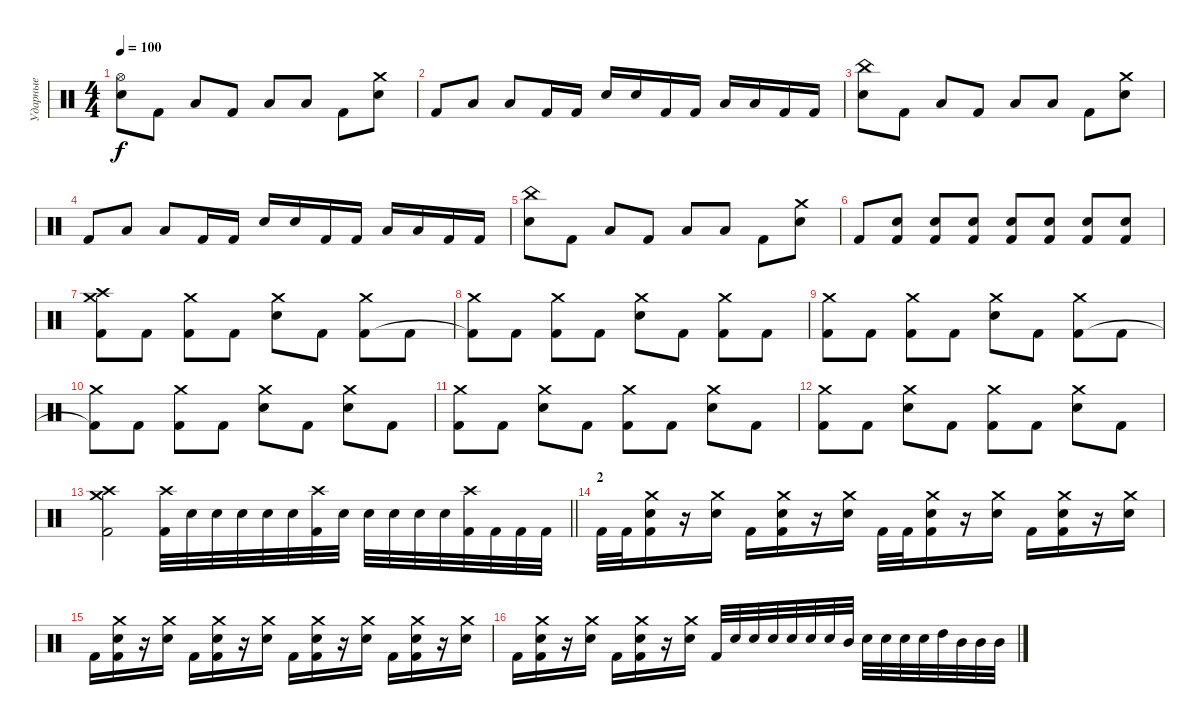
\track ("Ударные" "Ударные") {instrument percussion}
\staff
\articulation defaults
\ts (4 4)
\tempo 100
\clef neutral
\ks c
("Hi-Hat (open)" "Electric Snare (hit)").8{dy f} "Kick (hit) 2".8 "Low Tom (hit)".8 "Kick (hit) 2".8 "Low Tom (hit)".8 "Low Tom (hit)".8 "Kick (hit) 2".8 ("Crash medium (hit)" "Electric Snare (hit)").8 |
"Kick (hit) 2".8 "Low Tom (hit)".8 "Low Tom (hit)".8 "Kick (hit) 2".16 "Kick (hit) 2".16 "Electric Snare (hit)".16 "Electric Snare (hit)".16 "Kick (hit) 2".16 "Kick (hit) 2".16 "Low Tom (hit)".16 "Low Tom (hit)".16 "Kick (hit) 2".16 "Kick (hit) 2".16 |
("China (hit)" "Electric Snare (hit)").8 "Kick (hit) 2".8 "Low Tom (hit)".8 "Kick (hit) 2".8 "Low Tom (hit)".8 "Low Tom (hit)".8 "Kick (hit) 2".8 ("Crash medium (hit)" "Electric Snare (hit)").8 |
"Kick (hit) 2".8 "Low Tom (hit)".8 "Low Tom (hit)".8 "Kick (hit) 2".16 "Kick (hit) 2".16 "Electric Snare (hit)".16 "Electric Snare (hit)".16 "Kick (hit) 2".16 "Kick (hit) 2".16 "Low Tom (hit)".16 "Low Tom (hit)".16 "Kick (hit) 2".16 "Kick (hit) 2".16 |
("China (hit)" "Electric Snare (hit)").8 "Kick (hit) 2".8 "Low Tom (hit)".8 "Kick (hit) 2".8 "Low Tom (hit)".8 "Low Tom (hit)".8 "Kick (hit) 2".8 ("Crash medium (hit)" "Electric Snare (hit)").8 |
"Kick (hit) 2".8 ("Electric Snare (hit)" "Kick (hit) 2").8 ("Electric Snare (hit)" "Kick (hit) 2").8 ("Electric Snare (hit)" "Kick (hit) 2").8 ("Electric Snare (hit)" "Kick (hit) 2").8 ("Electric Snare (hit)" "Kick (hit) 2").8 ("Electric Snare (hit)" "Kick (hit) 2").8 ("Electric Snare (hit)" "Kick (hit) 2").8 |
("Crash medium (hit)" "Crash high (hit)" "Kick (hit) 2").8 "Kick (hit) 2".8 ("Crash medium (hit)" "Kick (hit) 2").8 "Kick (hit) 2".8 ("Crash medium (hit)" "Electric Snare (hit)").8 "Kick (hit) 2".8 ("Crash medium (hit)" "Kick (hit) 2").8 "Kick (hit) 2".8 |
("Crash medium (hit)" "Kick (hit) 2"{t}).8 "Kick (hit) 2".8 ("Crash medium (hit)" "Kick (hit) 2").8 "Kick (hit) 2".8 ("Crash medium (hit)" "Electric Snare (hit)").8 "Kick (hit) 2".8 ("Crash medium (hit)" "Kick (hit) 2").8 "Kick (hit) 2".8 |
("Crash medium (hit)" "Kick (hit) 2").8 "Kick (hit) 2".8 ("Crash medium (hit)" "Kick (hit) 2").8 "Kick (hit) 2".8 ("Crash medium (hit)" "Electric Snare (hit)").8 "Kick (hit) 2".8 ("Crash medium (hit)" "Kick (hit) 2").8 "Kick (hit) 2".8 |
("Crash medium (hit)" "Kick (hit) 2"{t}).8 "Kick (hit) 2".8 ("Crash medium (hit)" "Kick (hit) 2").8 "Kick (hit) 2".8 ("Crash medium (hit)" "Electric Snare (hit)").8 "Kick (hit) 2".8 ("Crash medium (hit)" "Electric Snare (hit)").8 "Kick (hit) 2".8 |
("Crash medium (hit)" "Kick (hit) 2").8 "Kick (hit) 2".8 ("Crash medium (hit)" "Electric Snare (hit)").8 "Kick (hit) 2".8 ("Crash medium (hit)" "Kick (hit) 2").8 "Kick (hit) 2".8 ("Crash medium (hit)" "Electric Snare (hit)").8 "Kick (hit) 2".8 |
("Crash medium (hit)" "Kick (hit) 2").8 "Kick (hit) 2".8 ("Crash medium (hit)" "Electric Snare (hit)").8 "Kick (hit) 2".8 ("Crash medium (hit)" "Kick (hit) 2").8 "Kick (hit) 2".8 ("Crash medium (hit)" "Electric Snare (hit)").8 "Kick (hit) 2".8 |
\barLineRight lightlight
("Crash medium (hit)" "Crash high (hit)" "Kick (hit) 2").2 ("Crash high (hit)" "Kick (hit) 2").32 "Electric Snare (hit)".32 "Electric Snare (hit)".32 "Electric Snare (hit)".32 "Electric Snare (hit)".32 "Electric Snare (hit)".32 ("Crash high (hit)" "Kick (hit) 2").32 "Electric Snare (hit)".32 "Electric Snare (hit)".32 "Electric Snare (hit)".32 "Electric Snare (hit)".32 "Electric Snare (hit)".32 ("Crash high (hit)" "Kick (hit) 2").32 "Kick (hit) 2".32 "Kick (hit) 2".32 "Kick (hit) 2".32 |
\section ("" "2")
"Kick (hit) 2".32 "Kick (hit) 2".32 ("Crash medium (hit)" "Electric Snare (hit)" "Kick (hit) 2").16 r.16 ("Crash medium (hit)" "Electric Snare (hit)").16 "Kick (hit) 2".16 ("Crash medium (hit)" "Electric Snare (hit)" "Kick (hit) 2").16 r.16 ("Crash medium (hit)" "Electric Snare (hit)").16 "Kick (hit) 2".32 "Kick (hit) 2".32 ("Crash medium (hit)" "Electric Snare (hit)" "Kick (hit) 2").16 r.16 ("Crash medium (hit)" "Electric Snare (hit)").16 "Kick (hit) 2".16 ("Crash medium (hit)" "Electric Snare (hit)" "Kick (hit) 2").16 r.16 ("Crash medium (hit)" "Electric Snare (hit)").16 |
"Kick (hit) 2".16 ("Crash medium (hit)" "Electric Snare (hit)" "Kick (hit) 2").16 r.16 ("Crash medium (hit)" "Electric Snare (hit)").16 "Kick (hit) 2".16 ("Crash medium (hit)" "Electric Snare (hit)" "Kick (hit) 2").16 r.16 ("Crash medium (hit)" "Electric Snare (hit)").16 "Kick (hit) 2".16 ("Crash medium (hit)" "Electric Snare (hit)" "Kick (hit) 2").16 r.16 ("Crash medium (hit)" "Electric Snare (hit)").16 "Kick (hit) 2".16 ("Crash medium (hit)" "Electric Snare (hit)" "Kick (hit) 2").16 r.16 ("Crash medium (hit)" "Electric Snare (hit)").16 |
"Kick (hit) 2".16 ("Crash medium (hit)" "Electric Snare (hit)" "Kick (hit) 2").16 r.16 ("Crash medium (hit)" "Electric Snare (hit)").16 "Kick (hit) 2".16 ("Crash medium (hit)" "Electric Snare (hit)" "Kick (hit) 2").16 r.16 ("Crash medium (hit)" "Electric Snare (hit)").16 "Kick (hit) 2".32 "Electric Snare (hit)".32 "Electric Snare (hit)".32 "Electric Snare (hit)".32 "Electric Snare (hit)".32 "Electric Snare (hit)".32 "Electric Snare (hit)".32 "Mid Tom (hit)".32 "Electric Snare (hit)".32 "Electric Snare (hit)".32 "Electric Snare (hit)".32 "Electric Snare (hit)".32 "High Tom (hit)".32 "Mid Tom (hit)".32 "Mid Tom (hit)".32 "Mid Tom (hit)".32
